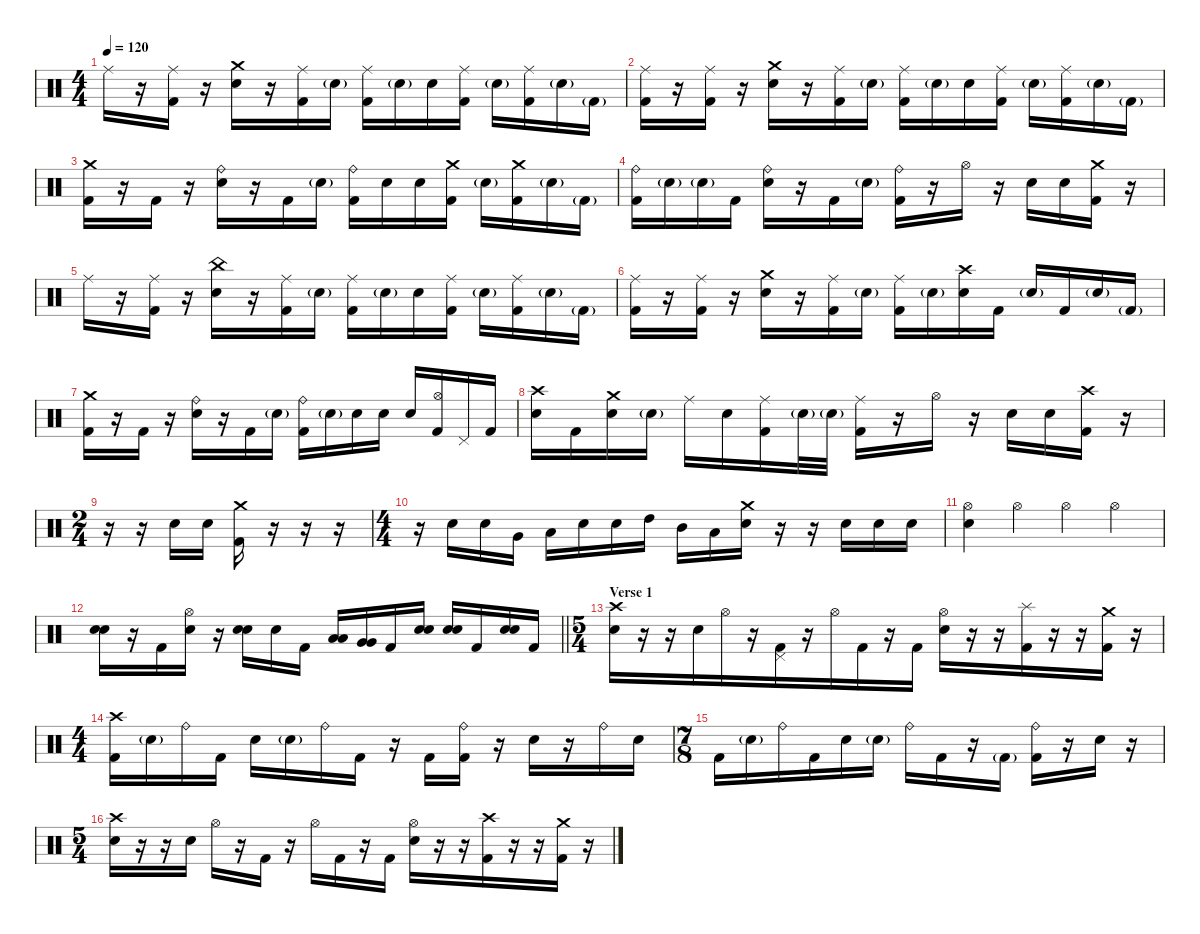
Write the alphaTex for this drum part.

\defaultSystemsLayout 4
\hideDynamics
\bracketExtendMode nobrackets
\singleTrackTrackNamePolicy hidden
\multiTrackTrackNamePolicy hidden
\firstSystemTrackNameMode fullname
\firstSystemTrackNameOrientation horizontal
\otherSystemsTrackNameOrientation horizontal
\track ("Martin Axenrot - Drums" "drm.") {instrument percussion}
\staff {score}
\articulation defaults
\ts (4 4)
\tempo 120
\clef neutral
\ks c "Ride (middle)".16{dy f beam Down}
r.16{beam Down} ("Ride (middle)" "Kick (hit) 2").16{beam Down} r.16{beam Down} ("Crash medium (hit)" "Snare (hit) 2").16{beam Down} r.16{beam Down} ("Ride (middle)" "Kick (hit) 2").16{beam Down} "Snare (hit) 2"{g}.16{dy mf beam Down} ("Ride (middle)" "Kick (hit) 2").16{dy f beam Down} "Snare (hit) 2"{g}.16{dy mf beam Down} "Snare (hit) 2".16{dy f beam Down} ("Ride (middle)" "Kick (hit) 2").16{beam Down} "Snare (hit) 2"{g}.16{dy mf beam Down} ("Ride (middle)" "Kick (hit) 2").16{dy f beam Down} "Snare (hit) 2"{g}.16{dy mf beam Down} "Kick (hit) 2"{g}.16{beam Down} |
("Ride (middle)" "Kick (hit) 2").16{dy f beam Down} r.16{beam Down} ("Ride (middle)" "Kick (hit) 2").16{beam Down} r.16{beam Down} ("Crash medium (hit)" "Snare (hit) 2").16{beam Down} r.16{beam Down} ("Ride (middle)" "Kick (hit) 2").16{beam Down} "Snare (hit) 2"{g}.16{dy mf beam Down} ("Ride (middle)" "Kick (hit) 2").16{dy f beam Down} "Snare (hit) 2"{g}.16{dy mf beam Down} "Snare (hit) 2".16{dy f beam Down} ("Ride (middle)" "Kick (hit) 2").16{beam Down} "Snare (hit) 2"{g}.16{dy mf beam Down} ("Ride (middle)" "Kick (hit) 2").16{dy f beam Down} "Snare (hit) 2"{g}.16{dy mf beam Down} "Kick (hit) 2"{g}.16{beam Down} |
("Crash medium (hit)" "Kick (hit) 2").16{dy f beam Down} r.16{beam Down} "Kick (hit) 2".16{beam Down} r.16{beam Down} ("Ride (bell)" "Snare (hit) 2").16{beam Down} r.16{beam Down} "Kick (hit) 2".16{beam Down} "Snare (hit) 2"{g}.16{dy mf beam Down} ("Ride (bell)" "Kick (hit) 2").16{dy f beam Down} "Snare (hit) 2".16{dy mp beam Down} "Snare (hit) 2".16{dy f beam Down} ("Crash medium (hit)" "Kick (hit) 2").16{beam Down} "Snare (hit) 2"{g}.16{dy mf beam Down} ("Crash medium (hit)" "Kick (hit) 2").16{dy f beam Down} "Snare (hit) 2"{g}.16{dy mf beam Down} "Kick (hit) 2"{g}.16{beam Down} |
("Ride (bell)" "Kick (hit) 2").16{dy f beam Down} "Snare (hit) 2"{g}.16{dy mf beam Down} "Snare (hit) 2"{g}.16{beam Down} "Kick (hit) 2".16{dy f beam Down} ("Ride (bell)" "Snare (hit) 2").16{beam Down} r.16{beam Down} "Kick (hit) 2".16{beam Down} "Snare (hit) 2"{g}.16{dy mf beam Down} ("Ride (bell)" "Kick (hit) 2").16{dy f beam Down} r.16{beam Down} "Hi-Hat (open)".16{beam Down} r.16{beam Down} "Snare (hit) 2".16{beam Down} "Snare (hit) 2".16{beam Down} ("Crash medium (hit)" "Kick (hit) 2").16{beam Down} r.16{beam Down} |
"Ride (middle)".16{beam Down} r.16{beam Down} ("Ride (middle)" "Kick (hit) 2").16{beam Down} r.16{beam Down} ("China (hit)" "Snare (hit) 2").16{dy fff beam Down} r.16{beam Down} ("Ride (middle)" "Kick (hit) 2").16{dy f beam Down} "Snare (hit) 2"{g}.16{dy mf beam Down} ("Ride (middle)" "Kick (hit) 2").16{dy f beam Down} "Snare (hit) 2"{g}.16{dy mf beam Down} "Snare (hit) 2".16{dy f beam Down} ("Ride (middle)" "Kick (hit) 2").16{beam Down} "Snare (hit) 2"{g}.16{dy mf beam Down} ("Ride (middle)" "Kick (hit) 2").16{dy f beam Down} "Snare (hit) 2"{g}.16{dy mf beam Down} "Kick (hit) 2"{g}.16{beam Down} |
("Ride (middle)" "Kick (hit) 2").16{dy f beam Down} r.16{beam Down} ("Ride (middle)" "Kick (hit) 2").16{beam Down} r.16{beam Down} ("Crash medium (hit)" "Snare (hit) 2").16{beam Down} r.16{beam Down} ("Ride (middle)" "Kick (hit) 2").16{beam Down} "Snare (hit) 2"{g}.16{dy mf beam Down} ("Ride (middle)" "Kick (hit) 2").16{dy f beam Down} "Snare (hit) 2"{g}.16{dy mf beam Down} ("Crash high (hit)" "Snare (hit) 2").16{dy f beam Down} "Kick (hit) 2".16{beam Down} "Snare (hit) 2"{g}.16{dy mf beam Up} "Kick (hit) 2".16{dy f beam Up} "Snare (hit) 2"{g}.16{dy mf beam Up} "Kick (hit) 2"{g}.16{beam Up} |
("Crash medium (hit)" "Kick (hit) 2").16{dy f beam Down} r.16{beam Down} "Kick (hit) 2".16{beam Down} r.16{beam Down} ("Ride (bell)" "Snare (hit) 2").16{beam Down} r.16{beam Down} "Kick (hit) 2".16{beam Down} "Snare (hit) 2"{g}.16{dy mf beam Down} ("Ride (bell)" "Kick (hit) 2").16{dy f beam Down} "Snare (hit) 2"{g}.16{dy mf beam Down} "Snare (hit) 2".16{dy f beam Down} "Snare (hit) 2".16{beam Down} "Snare (hit) 2".16{beam Up} ("Hi-Hat (open)" "Kick (hit) 2").16{beam Up} "Pedal Hi-Hat (hit)".16{beam Up} "Kick (hit) 2".16{beam Up} |
("Crash high (hit)" "Snare (hit) 2").16{beam Down} "Kick (hit) 2".16{beam Down} ("Crash medium (hit)" "Snare (hit) 2").16{beam Down} "Snare (hit) 2"{g}.16{dy mf beam Down} "Ride (middle)".16{dy f beam Down} "Snare (hit) 2".16{beam Down} ("Ride (middle)" "Kick (hit) 2").16{beam Down} "Snare (hit) 2"{g}.32{dy mf beam Down} "Snare (hit) 2"{g}.32{beam Down} ("Ride (middle)" "Kick (hit) 2").16{dy f beam Down} r.16{beam Down} "Hi-Hat (open)".16{beam Down} r.16{beam Down} "Snare (hit) 2".16{beam Down} "Snare (hit) 2".16{beam Down} ("Crash high (hit)" "Kick (hit) 2").16{beam Down} r.16{beam Down} |
\ts (2 4)
\beaming (8 2 2)
r.16{beam Down} r.16{beam Down} "Snare (hit) 2".16{beam Down} "Snare (hit) 2".16{beam Down} ("Crash medium (hit)" "Kick (hit) 2").16{beam Down} r.16{beam Down} r.16{beam Down} r.16{beam Down} |
\ts (4 4)
\beaming (8 2 2 2 2)
r.16{beam Down} "Snare (hit) 2".16{beam Up} "Snare (hit) 2".16{beam Up} "Very Low Tom (hit)".16{dy fff beam Up} "Low Tom (hit)".16{dy ff beam Down} "Snare (hit) 2".16{dy f beam Down} "Snare (hit) 2".16{dy mp beam Down} "High Tom (hit)".16{dy fff beam Down} "Mid Tom (hit)".16{dy ff beam Down} "Low Tom (hit)".16{dy f beam Down} ("Crash medium (hit)" "Snare (hit) 2").16{beam Down} r.16{beam Down} r.16{beam Down} "Snare (hit) 2".16{beam Down} "Snare (hit) 2".16{beam Down} "Snare (hit) 2".16{beam Down} |
("Hi-Hat (open)" "Snare (hit) 2").4{beam Down} "Hi-Hat (open)".4{beam Down} "Hi-Hat (open)".4{beam Down} "Hi-Hat (open)".4{beam Down} |
\barLineRight lightlight
("Snare (hit) 2" "Snare (hit) 2").16{dy ff beam Down} r.16{beam Down} "Kick (hit) 2".16{dy f beam Down} ("Hi-Hat (open)" "Snare (hit) 2").16{beam Down} r.16{beam Down} ("Snare (hit) 2" "Snare (hit) 2").16{beam Up} "Snare (hit) 2".16{beam Up} "Kick (hit) 2".16{beam Up} ("Low Tom (hit)" "Low Tom (hit)").16{dy ff beam Up} ("Very Low Tom (hit)" "Very Low Tom (hit)").16{dy f beam Up} "Kick (hit) 2".16{beam Up} ("Snare (hit) 2" "Snare (hit) 2").16{beam Up} ("Snare (hit) 2" "Snare (hit) 2").16{beam Up} "Kick (hit) 2".16{beam Up} ("Snare (hit) 2" "Snare (hit) 2").16{beam Up} "Kick (hit) 2".16{beam Up} |
\ts (5 4)
\beaming (8 6 4)
\section ("" "Verse 1")
("Crash high (hit)" "Snare (hit) 2").16{beam Down} r.16{beam Down} r.16{beam Down} "Snare (hit) 2".16{beam Down} "Hi-Hat (open)".16{beam Down} r.16{beam Down} ("Pedal Hi-Hat (hit)" "Kick (hit) 2").16{beam Down} r.16{beam Down} "Hi-Hat (open)".16{beam Down} "Kick (hit) 2".16{beam Down} r.16{beam Down} "Kick (hit) 2".16{beam Down} ("Hi-Hat (open)" "Snare (hit) 2").16{beam Down} r.16{beam Down} r.16{beam Down} ("Splash (hit)" "Kick (hit) 2").16{beam Down} r.16{beam Down} r.16{beam Down} ("Crash medium (hit)" "Kick (hit) 2").16{beam Down} r.16{beam Down} |
\ts (4 4)
\beaming (8 2 2 2 2)
("Crash high (hit)" "Kick (hit) 2").16{beam Down} "Snare (hit) 2"{g}.16{dy mf beam Down} "Ride (bell)".16{dy f beam Down} "Kick (hit) 2".16{beam Down} "Snare (hit) 2".16{beam Down} "Snare (hit) 2"{g}.16{dy mf beam Down} "Ride (bell)".16{dy f beam Down} "Kick (hit) 2".16{beam Down} r.16{beam Down} "Kick (hit) 2".16{dy mf beam Down} ("Ride (bell)" "Kick (hit) 2").16{dy f beam Down} r.16{beam Down} "Snare (hit) 2".16{beam Down} r.16{beam Down} "Ride (bell)".16{beam Down} "Snare (hit) 2".16{beam Down} |
\ts (7 8)
\beaming (8 3 2 2)
"Kick (hit) 2".16{beam Down} "Snare (hit) 2"{g}.16{dy mf beam Down} "Ride (bell)".16{dy f beam Down} "Kick (hit) 2".16{beam Down} "Snare (hit) 2".16{beam Down} "Snare (hit) 2"{g}.16{dy mf beam Down} "Ride (bell)".16{dy f beam Down} "Kick (hit) 2".16{beam Down} r.16{beam Down} "Kick (hit) 2"{g}.16{dy mf beam Down} ("Ride (bell)" "Kick (hit) 2").16{dy f beam Down} r.16{beam Down} "Snare (hit) 2".16{beam Down} r.16{beam Down} |
\ts (5 4)
\beaming (8 2 2 2 4)
("Crash high (hit)" "Snare (hit) 2").16{beam Down} r.16{beam Down} r.16{beam Down} "Snare (hit) 2".16{beam Down} "Hi-Hat (open)".16{beam Down} r.16{beam Down} "Kick (hit) 2".16{beam Down} r.16{beam Down} "Hi-Hat (open)".16{beam Down} "Kick (hit) 2".16{beam Down} r.16{beam Down} "Kick (hit) 2".16{beam Down} ("Hi-Hat (open)" "Snare (hit) 2").16{beam Down} r.16{beam Down} r.16{beam Down} ("Crash high (hit)" "Kick (hit) 2").16{beam Down} r.16{beam Down} r.16{beam Down} ("Crash medium (hit)" "Kick (hit) 2").16{beam Down} r.16{beam Down}
